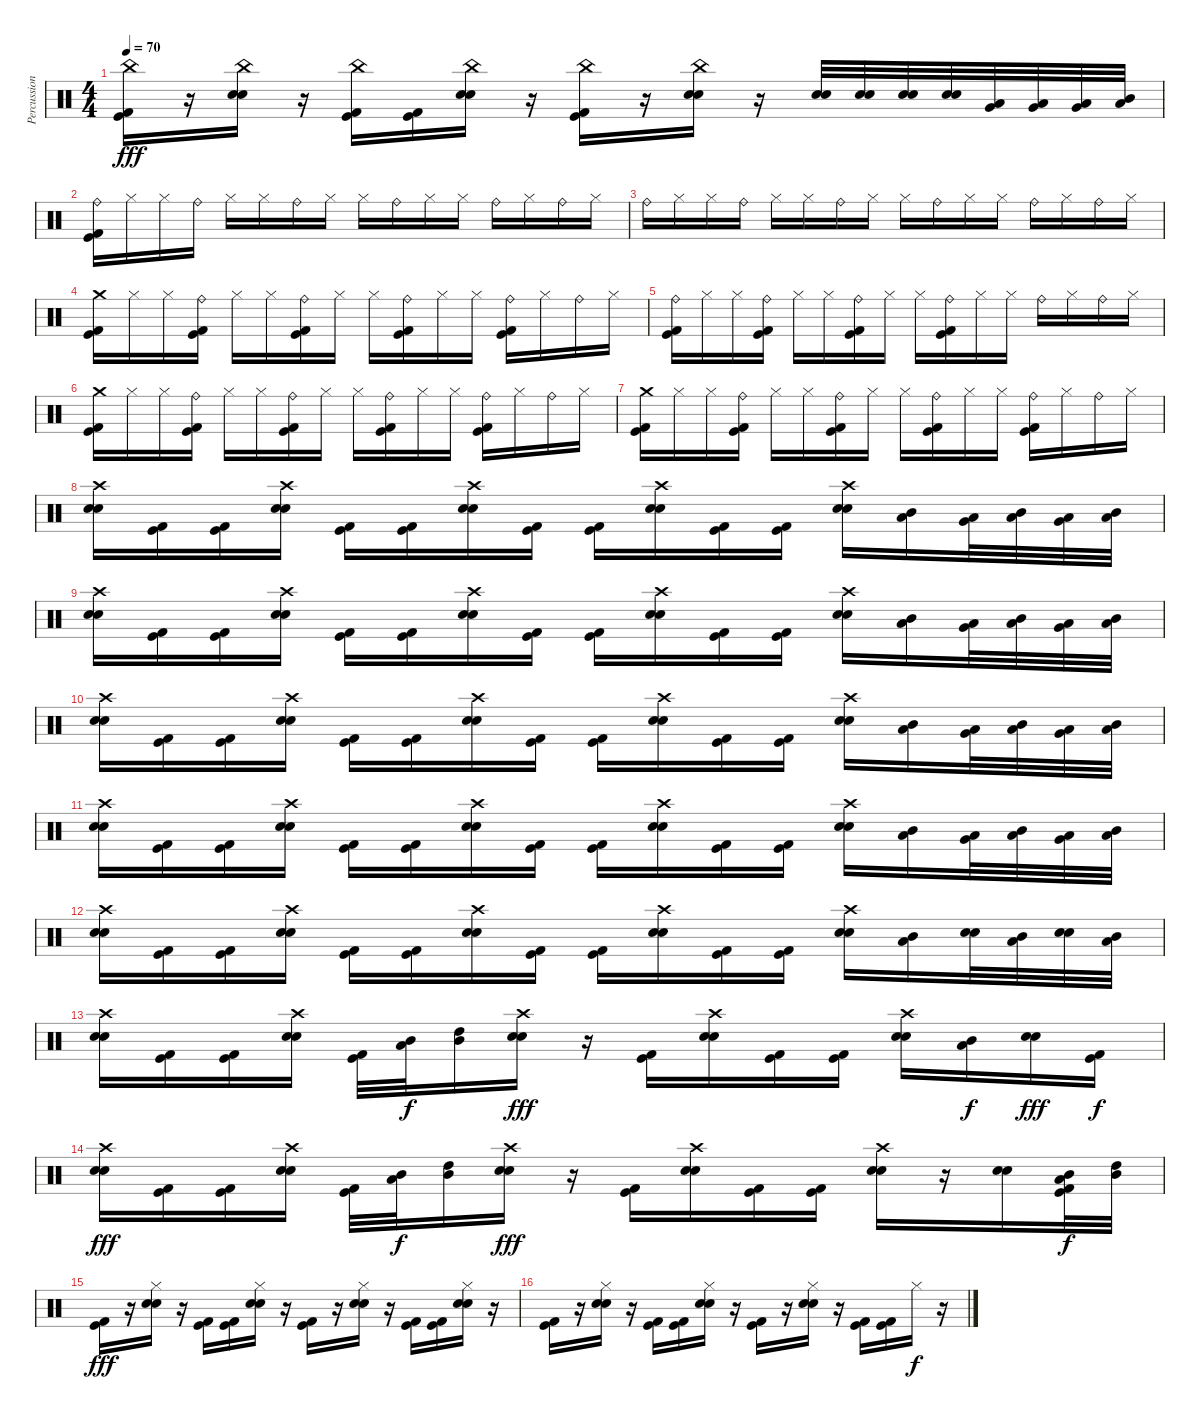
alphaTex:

\track ("Percussion" "Percussion") {instrument percussion}
\staff {score}
\articulation defaults
\ts (4 4)
\tempo 70
\clef neutral
\ks c
("Kick (hit)" "China (hit)" "Kick (hit) 2").16{dy fff} r.16 ("China (hit)" "Snare (hit) 2" "Electric Snare (hit)").16 r.16 ("Kick (hit)" "China (hit)" "Kick (hit) 2").16 ("Kick (hit)" "Kick (hit) 2").16 ("China (hit)" "Snare (hit) 2" "Electric Snare (hit)").16 r.16 ("Kick (hit)" "China (hit)" "Kick (hit) 2").16 r.16 ("China (hit)" "Snare (hit) 2" "Electric Snare (hit)").16 r.16 ("Snare (hit) 2" "Electric Snare (hit)").32 ("Snare (hit) 2" "Electric Snare (hit)").32 ("Snare (hit) 2" "Electric Snare (hit)").32 ("Snare (hit) 2" "Electric Snare (hit)").32 ("Low Tom (hit)" "Very Low Tom (hit)").32 ("Very Low Tom (hit)" "Low Floor Tom (hit)").32 ("Low Tom (hit)" "Very Low Tom (hit)").32 ("Mid Tom (hit)" "Low Tom (hit)").32 |
("Kick (hit)" "Ride (bell)" "Kick (hit) 2").16 "Hi-Hat (closed)".16 "Hi-Hat (closed)".16 "Ride (bell)".16 "Hi-Hat (closed)".16 "Hi-Hat (closed)".16 "Ride (bell)".16 "Hi-Hat (closed)".16 "Hi-Hat (closed)".16 "Ride (bell)".16 "Hi-Hat (closed)".16 "Hi-Hat (closed)".16 "Ride (bell)".16 "Hi-Hat (closed)".16 "Ride (bell)".16 "Hi-Hat (closed)".16 |
"Ride (bell)".16 "Hi-Hat (closed)".16 "Hi-Hat (closed)".16 "Ride (bell)".16 "Hi-Hat (closed)".16 "Hi-Hat (closed)".16 "Ride (bell)".16 "Hi-Hat (closed)".16 "Hi-Hat (closed)".16 "Ride (bell)".16 "Hi-Hat (closed)".16 "Hi-Hat (closed)".16 "Ride (bell)".16 "Hi-Hat (closed)".16 "Ride (bell)".16 "Hi-Hat (closed)".16 |
("Kick (hit)" "Crash medium (hit)" "Kick (hit) 2").16 "Hi-Hat (closed)".16 "Hi-Hat (closed)".16 ("Kick (hit)" "Ride (bell)" "Kick (hit) 2").16 "Hi-Hat (closed)".16 "Hi-Hat (closed)".16 ("Kick (hit)" "Ride (bell)" "Kick (hit) 2").16 "Hi-Hat (closed)".16 "Hi-Hat (closed)".16 ("Kick (hit)" "Ride (bell)" "Kick (hit) 2").16 "Hi-Hat (closed)".16 "Hi-Hat (closed)".16 ("Kick (hit)" "Ride (bell)" "Kick (hit) 2").16 "Hi-Hat (closed)".16 "Ride (bell)".16 "Hi-Hat (closed)".16 |
("Kick (hit)" "Ride (bell)" "Kick (hit) 2").16 "Hi-Hat (closed)".16 "Hi-Hat (closed)".16 ("Kick (hit)" "Ride (bell)" "Kick (hit) 2").16 "Hi-Hat (closed)".16 "Hi-Hat (closed)".16 ("Kick (hit)" "Ride (bell)" "Kick (hit) 2").16 "Hi-Hat (closed)".16 "Hi-Hat (closed)".16 ("Kick (hit)" "Ride (bell)" "Kick (hit) 2").16 "Hi-Hat (closed)".16 "Hi-Hat (closed)".16 "Ride (bell)".16 "Hi-Hat (closed)".16 "Ride (bell)".16 "Hi-Hat (closed)".16 |
("Kick (hit)" "Crash medium (hit)" "Kick (hit) 2").16 "Hi-Hat (closed)".16 "Hi-Hat (closed)".16 ("Kick (hit)" "Ride (bell)" "Kick (hit) 2").16 "Hi-Hat (closed)".16 "Hi-Hat (closed)".16 ("Kick (hit)" "Ride (bell)" "Kick (hit) 2").16 "Hi-Hat (closed)".16 "Hi-Hat (closed)".16 ("Kick (hit)" "Ride (bell)" "Kick (hit) 2").16 "Hi-Hat (closed)".16 "Hi-Hat (closed)".16 ("Kick (hit)" "Ride (bell)" "Kick (hit) 2").16 "Hi-Hat (closed)".16 "Ride (bell)".16 "Hi-Hat (closed)".16 |
("Kick (hit)" "Crash medium (hit)" "Kick (hit) 2").16 "Hi-Hat (closed)".16 "Hi-Hat (closed)".16 ("Kick (hit)" "Ride (bell)" "Kick (hit) 2").16 "Hi-Hat (closed)".16 "Hi-Hat (closed)".16 ("Kick (hit)" "Ride (bell)" "Kick (hit) 2").16 "Hi-Hat (closed)".16 "Hi-Hat (closed)".16 ("Kick (hit)" "Ride (bell)" "Kick (hit) 2").16 "Hi-Hat (closed)".16 "Hi-Hat (closed)".16 ("Kick (hit)" "Ride (bell)" "Kick (hit) 2").16 "Hi-Hat (closed)".16 "Ride (bell)".16 "Hi-Hat (closed)".16 |
("Crash high (hit)" "Snare (hit) 2" "Electric Snare (hit)").16 ("Kick (hit)" "Kick (hit) 2").16 ("Kick (hit)" "Kick (hit) 2").16 ("Crash high (hit)" "Snare (hit) 2" "Electric Snare (hit)").16 ("Kick (hit)" "Kick (hit) 2").16 ("Kick (hit)" "Kick (hit) 2").16 ("Crash high (hit)" "Snare (hit) 2" "Electric Snare (hit)").16 ("Kick (hit)" "Kick (hit) 2").16 ("Kick (hit)" "Kick (hit) 2").16 ("Crash high (hit)" "Snare (hit) 2" "Electric Snare (hit)").16 ("Kick (hit)" "Kick (hit) 2").16 ("Kick (hit)" "Kick (hit) 2").16 ("Crash high (hit)" "Snare (hit) 2" "Electric Snare (hit)").16 ("Mid Tom (hit)" "Low Tom (hit)").16 ("Low Tom (hit)" "Very Low Tom (hit)").32 ("Mid Tom (hit)" "Low Tom (hit)").32 ("Low Tom (hit)" "Very Low Tom (hit)").32 ("Mid Tom (hit)" "Low Tom (hit)").32 |
("Crash high (hit)" "Snare (hit) 2" "Electric Snare (hit)").16 ("Kick (hit)" "Kick (hit) 2").16 ("Kick (hit)" "Kick (hit) 2").16 ("Crash high (hit)" "Snare (hit) 2" "Electric Snare (hit)").16 ("Kick (hit)" "Kick (hit) 2").16 ("Kick (hit)" "Kick (hit) 2").16 ("Crash high (hit)" "Snare (hit) 2" "Electric Snare (hit)").16 ("Kick (hit)" "Kick (hit) 2").16 ("Kick (hit)" "Kick (hit) 2").16 ("Crash high (hit)" "Snare (hit) 2" "Electric Snare (hit)").16 ("Kick (hit)" "Kick (hit) 2").16 ("Kick (hit)" "Kick (hit) 2").16 ("Crash high (hit)" "Snare (hit) 2" "Electric Snare (hit)").16 ("Mid Tom (hit)" "Low Tom (hit)").16 ("Low Tom (hit)" "Very Low Tom (hit)").32 ("Mid Tom (hit)" "Low Tom (hit)").32 ("Low Tom (hit)" "Very Low Tom (hit)").32 ("Mid Tom (hit)" "Low Tom (hit)").32 |
("Crash high (hit)" "Snare (hit) 2" "Electric Snare (hit)").16 ("Kick (hit)" "Kick (hit) 2").16 ("Kick (hit)" "Kick (hit) 2").16 ("Crash high (hit)" "Snare (hit) 2" "Electric Snare (hit)").16 ("Kick (hit)" "Kick (hit) 2").16 ("Kick (hit)" "Kick (hit) 2").16 ("Crash high (hit)" "Snare (hit) 2" "Electric Snare (hit)").16 ("Kick (hit)" "Kick (hit) 2").16 ("Kick (hit)" "Kick (hit) 2").16 ("Crash high (hit)" "Snare (hit) 2" "Electric Snare (hit)").16 ("Kick (hit)" "Kick (hit) 2").16 ("Kick (hit)" "Kick (hit) 2").16 ("Crash high (hit)" "Snare (hit) 2" "Electric Snare (hit)").16 ("Mid Tom (hit)" "Low Tom (hit)").16 ("Low Tom (hit)" "Very Low Tom (hit)").32 ("Mid Tom (hit)" "Low Tom (hit)").32 ("Low Tom (hit)" "Very Low Tom (hit)").32 ("Mid Tom (hit)" "Low Tom (hit)").32 |
("Crash high (hit)" "Snare (hit) 2" "Electric Snare (hit)").16 ("Kick (hit)" "Kick (hit) 2").16 ("Kick (hit)" "Kick (hit) 2").16 ("Crash high (hit)" "Snare (hit) 2" "Electric Snare (hit)").16 ("Kick (hit)" "Kick (hit) 2").16 ("Kick (hit)" "Kick (hit) 2").16 ("Crash high (hit)" "Snare (hit) 2" "Electric Snare (hit)").16 ("Kick (hit)" "Kick (hit) 2").16 ("Kick (hit)" "Kick (hit) 2").16 ("Crash high (hit)" "Snare (hit) 2" "Electric Snare (hit)").16 ("Kick (hit)" "Kick (hit) 2").16 ("Kick (hit)" "Kick (hit) 2").16 ("Crash high (hit)" "Snare (hit) 2" "Electric Snare (hit)").16 ("Mid Tom (hit)" "Low Tom (hit)").16 ("Low Tom (hit)" "Very Low Tom (hit)").32 ("Mid Tom (hit)" "Low Tom (hit)").32 ("Low Tom (hit)" "Very Low Tom (hit)").32 ("Mid Tom (hit)" "Low Tom (hit)").32 |
("Crash high (hit)" "Snare (hit) 2" "Electric Snare (hit)").16 ("Kick (hit)" "Kick (hit) 2").16 ("Kick (hit)" "Kick (hit) 2").16 ("Crash high (hit)" "Snare (hit) 2" "Electric Snare (hit)").16 ("Kick (hit)" "Kick (hit) 2").16 ("Kick (hit)" "Kick (hit) 2").16 ("Crash high (hit)" "Snare (hit) 2" "Electric Snare (hit)").16 ("Kick (hit)" "Kick (hit) 2").16 ("Kick (hit)" "Kick (hit) 2").16 ("Crash high (hit)" "Snare (hit) 2" "Electric Snare (hit)").16 ("Kick (hit)" "Kick (hit) 2").16 ("Kick (hit)" "Kick (hit) 2").16 ("Crash high (hit)" "Snare (hit) 2" "Electric Snare (hit)").16 ("Mid Tom (hit)" "Low Tom (hit)").16 ("Snare (hit) 2" "Electric Snare (hit)").32 ("Mid Tom (hit)" "Low Tom (hit)").32 ("Snare (hit) 2" "Electric Snare (hit)").32 ("Mid Tom (hit)" "Low Tom (hit)").32 |
("Crash high (hit)" "Snare (hit) 2" "Electric Snare (hit)").16 ("Kick (hit)" "Kick (hit) 2").16 ("Kick (hit)" "Kick (hit) 2").16 ("Crash high (hit)" "Snare (hit) 2" "Electric Snare (hit)").16 ("Kick (hit)" "Kick (hit) 2").32 ("Mid Tom (hit)" "Low Tom (hit)").32{dy f} ("High Tom (hit)" "Mid Tom (hit)").16 ("Crash high (hit)" "Snare (hit) 2" "Electric Snare (hit)").16{dy fff} r.16 ("Kick (hit)" "Kick (hit) 2").16 ("Crash high (hit)" "Snare (hit) 2" "Electric Snare (hit)").16 ("Kick (hit)" "Kick (hit) 2").16 ("Kick (hit)" "Kick (hit) 2").16 ("Crash high (hit)" "Snare (hit) 2" "Electric Snare (hit)").16 ("Mid Tom (hit)" "Low Tom (hit)").16{dy f} ("Snare (hit) 2" "Electric Snare (hit)").16{dy fff} ("Kick (hit)" "Kick (hit) 2").16{dy f} |
("Crash high (hit)" "Snare (hit) 2" "Electric Snare (hit)").16{dy fff} ("Kick (hit)" "Kick (hit) 2").16 ("Kick (hit)" "Kick (hit) 2").16 ("Crash high (hit)" "Snare (hit) 2" "Electric Snare (hit)").16 ("Kick (hit)" "Kick (hit) 2").32 ("Mid Tom (hit)" "Low Tom (hit)").32{dy f} ("High Tom (hit)" "Mid Tom (hit)").16 ("Crash high (hit)" "Snare (hit) 2" "Electric Snare (hit)").16{dy fff} r.16 ("Kick (hit)" "Kick (hit) 2").16 ("Crash high (hit)" "Snare (hit) 2" "Electric Snare (hit)").16 ("Kick (hit)" "Kick (hit) 2").16 ("Kick (hit)" "Kick (hit) 2").16 ("Crash high (hit)" "Snare (hit) 2" "Electric Snare (hit)").16 r.16 ("Snare (hit) 2" "Electric Snare (hit)").16 ("Kick (hit)" "Mid Tom (hit)" "Low Tom (hit)" "Kick (hit) 2").32{dy f} ("High Tom (hit)" "Mid Tom (hit)").32 |
("Kick (hit)" "Kick (hit) 2").16{dy fff} r.16 ("Hi-Hat (closed)" "Snare (hit) 2" "Electric Snare (hit)").16 r.16 ("Kick (hit)" "Kick (hit) 2").16 ("Kick (hit)" "Kick (hit) 2").16 ("Hi-Hat (closed)" "Snare (hit) 2" "Electric Snare (hit)").16 r.16 ("Kick (hit)" "Kick (hit) 2").16 r.16 ("Hi-Hat (closed)" "Snare (hit) 2" "Electric Snare (hit)").16 r.16 ("Kick (hit)" "Kick (hit) 2").16 ("Kick (hit)" "Kick (hit) 2").16 ("Hi-Hat (closed)" "Snare (hit) 2" "Electric Snare (hit)").16 r.16 |
("Kick (hit)" "Kick (hit) 2").16 r.16 ("Hi-Hat (closed)" "Snare (hit) 2" "Electric Snare (hit)").16 r.16 ("Kick (hit)" "Kick (hit) 2").16 ("Kick (hit)" "Kick (hit) 2").16 ("Hi-Hat (closed)" "Snare (hit) 2" "Electric Snare (hit)").16 r.16 ("Kick (hit)" "Kick (hit) 2").16 r.16 ("Hi-Hat (closed)" "Snare (hit) 2" "Electric Snare (hit)").16 r.16 ("Kick (hit)" "Kick (hit) 2").16 ("Kick (hit)" "Kick (hit) 2").16 "Hi-Hat (closed)".16{dy f} r.16
